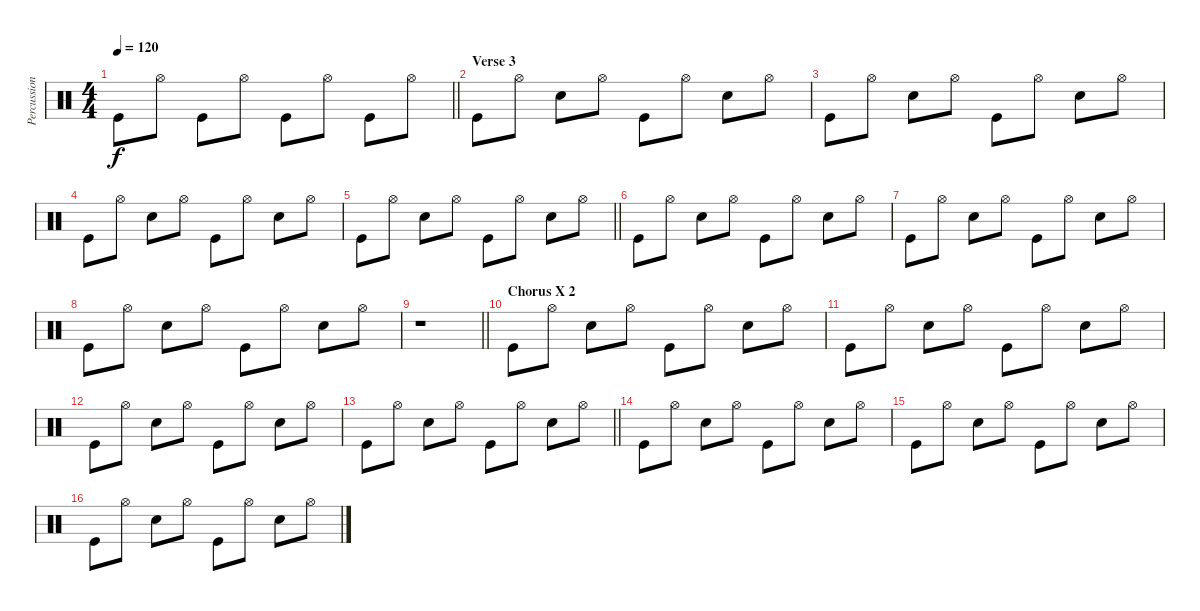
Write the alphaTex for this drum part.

\track ("Percussion" "Percussion") {instrument percussion}
\staff {score}
\articulation defaults
\ts (4 4)
\tempo 120
\clef neutral
\barLineRight lightlight
\ks c "Kick (hit)".8{dy f} "Hi-Hat (open)".8 "Kick (hit)".8 "Hi-Hat (open)".8 "Kick (hit)".8 "Hi-Hat (open)".8 "Kick (hit)".8 "Hi-Hat (open)".8
|
\section ("" "Verse 3")
"Kick (hit)".8 "Hi-Hat (open)".8 "Snare (hit) 2".8 "Hi-Hat (open)".8 "Kick (hit)".8 "Hi-Hat (open)".8 "Snare (hit) 2".8 "Hi-Hat (open)".8 |
"Kick (hit)".8 "Hi-Hat (open)".8 "Snare (hit) 2".8 "Hi-Hat (open)".8 "Kick (hit)".8 "Hi-Hat (open)".8 "Snare (hit) 2".8 "Hi-Hat (open)".8 |
"Kick (hit)".8 "Hi-Hat (open)".8 "Snare (hit) 2".8 "Hi-Hat (open)".8 "Kick (hit)".8 "Hi-Hat (open)".8 "Snare (hit) 2".8 "Hi-Hat (open)".8 |
\barLineRight lightlight "Kick (hit)".8 "Hi-Hat (open)".8 "Snare (hit) 2".8 "Hi-Hat (open)".8 "Kick (hit)".8 "Hi-Hat (open)".8 "Snare (hit) 2".8 "Hi-Hat (open)".8
|
"Kick (hit)".8 "Hi-Hat (open)".8 "Snare (hit) 2".8 "Hi-Hat (open)".8 "Kick (hit)".8 "Hi-Hat (open)".8 "Snare (hit) 2".8 "Hi-Hat (open)".8 |
"Kick (hit)".8 "Hi-Hat (open)".8 "Snare (hit) 2".8 "Hi-Hat (open)".8 "Kick (hit)".8 "Hi-Hat (open)".8 "Snare (hit) 2".8 "Hi-Hat (open)".8 |
"Kick (hit)".8 "Hi-Hat (open)".8 "Snare (hit) 2".8 "Hi-Hat (open)".8 "Kick (hit)".8 "Hi-Hat (open)".8 "Snare (hit) 2".8 "Hi-Hat (open)".8 |
\barLineRight lightlight
r.1 |
\section ("" "Chorus X 2")
"Kick (hit)".8 "Hi-Hat (open)".8 "Snare (hit) 2".8 "Hi-Hat (open)".8 "Kick (hit)".8 "Hi-Hat (open)".8 "Snare (hit) 2".8 "Hi-Hat (open)".8 |
"Kick (hit)".8 "Hi-Hat (open)".8 "Snare (hit) 2".8 "Hi-Hat (open)".8 "Kick (hit)".8 "Hi-Hat (open)".8 "Snare (hit) 2".8 "Hi-Hat (open)".8 |
"Kick (hit)".8 "Hi-Hat (open)".8 "Snare (hit) 2".8 "Hi-Hat (open)".8 "Kick (hit)".8 "Hi-Hat (open)".8 "Snare (hit) 2".8 "Hi-Hat (open)".8 |
\barLineRight lightlight "Kick (hit)".8 "Hi-Hat (open)".8 "Snare (hit) 2".8 "Hi-Hat (open)".8 "Kick (hit)".8 "Hi-Hat (open)".8 "Snare (hit) 2".8 "Hi-Hat (open)".8
|
"Kick (hit)".8 "Hi-Hat (open)".8 "Snare (hit) 2".8 "Hi-Hat (open)".8 "Kick (hit)".8 "Hi-Hat (open)".8 "Snare (hit) 2".8 "Hi-Hat (open)".8 |
"Kick (hit)".8 "Hi-Hat (open)".8 "Snare (hit) 2".8 "Hi-Hat (open)".8 "Kick (hit)".8 "Hi-Hat (open)".8 "Snare (hit) 2".8 "Hi-Hat (open)".8 |
"Kick (hit)".8 "Hi-Hat (open)".8 "Snare (hit) 2".8 "Hi-Hat (open)".8 "Kick (hit)".8 "Hi-Hat (open)".8 "Snare (hit) 2".8 "Hi-Hat (open)".8
